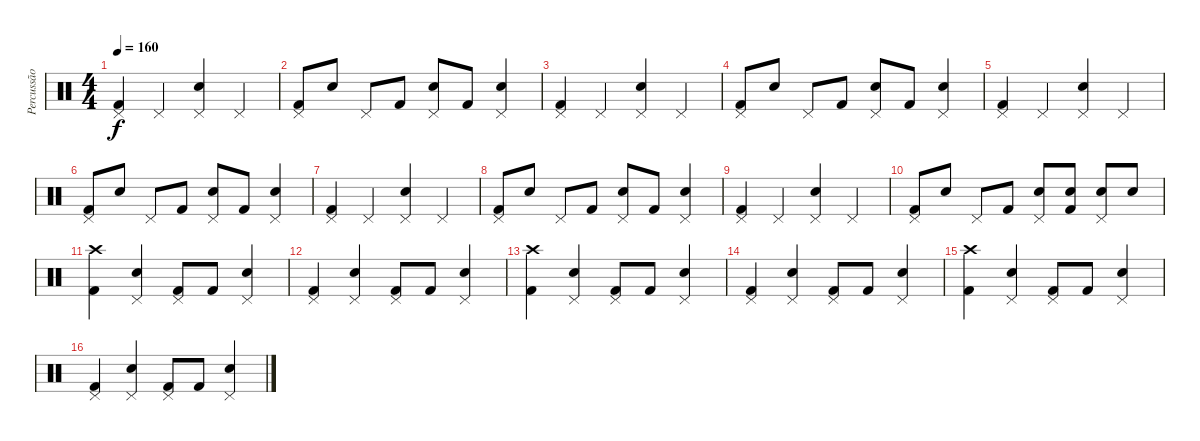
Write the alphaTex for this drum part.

\track ("Percussão" "Percussão") {instrument percussion}
\staff {score}
\articulation defaults
\ts (4 4)
\tempo 160
\clef neutral
\ks c
("Pedal Hi-Hat (hit)" "Kick (hit) 2").4{dy f} "Pedal Hi-Hat (hit)".4 ("Pedal Hi-Hat (hit)" "Snare (hit) 2").4 "Pedal Hi-Hat (hit)".4 |
("Pedal Hi-Hat (hit)" "Kick (hit) 2").8 "Snare (hit) 2".8 "Pedal Hi-Hat (hit)".8 "Kick (hit) 2".8 ("Pedal Hi-Hat (hit)" "Snare (hit) 2").8 "Kick (hit) 2".8 ("Pedal Hi-Hat (hit)" "Snare (hit) 2").4 |
("Pedal Hi-Hat (hit)" "Kick (hit) 2").4 "Pedal Hi-Hat (hit)".4 ("Pedal Hi-Hat (hit)" "Snare (hit) 2").4 "Pedal Hi-Hat (hit)".4 |
("Pedal Hi-Hat (hit)" "Kick (hit) 2").8 "Snare (hit) 2".8 "Pedal Hi-Hat (hit)".8 "Kick (hit) 2".8 ("Pedal Hi-Hat (hit)" "Snare (hit) 2").8 "Kick (hit) 2".8 ("Pedal Hi-Hat (hit)" "Snare (hit) 2").4 |
("Pedal Hi-Hat (hit)" "Kick (hit) 2").4 "Pedal Hi-Hat (hit)".4 ("Pedal Hi-Hat (hit)" "Snare (hit) 2").4 "Pedal Hi-Hat (hit)".4 |
("Pedal Hi-Hat (hit)" "Kick (hit) 2").8 "Snare (hit) 2".8 "Pedal Hi-Hat (hit)".8 "Kick (hit) 2".8 ("Pedal Hi-Hat (hit)" "Snare (hit) 2").8 "Kick (hit) 2".8 ("Pedal Hi-Hat (hit)" "Snare (hit) 2").4 |
("Pedal Hi-Hat (hit)" "Kick (hit) 2").4 "Pedal Hi-Hat (hit)".4 ("Pedal Hi-Hat (hit)" "Snare (hit) 2").4 "Pedal Hi-Hat (hit)".4 |
("Pedal Hi-Hat (hit)" "Kick (hit) 2").8 "Snare (hit) 2".8 "Pedal Hi-Hat (hit)".8 "Kick (hit) 2".8 ("Pedal Hi-Hat (hit)" "Snare (hit) 2").8 "Kick (hit) 2".8 ("Pedal Hi-Hat (hit)" "Snare (hit) 2").4 |
("Pedal Hi-Hat (hit)" "Kick (hit) 2").4 "Pedal Hi-Hat (hit)".4 ("Pedal Hi-Hat (hit)" "Snare (hit) 2").4 "Pedal Hi-Hat (hit)".4 |
("Pedal Hi-Hat (hit)" "Kick (hit) 2").8 "Snare (hit) 2".8 "Pedal Hi-Hat (hit)".8 "Kick (hit) 2".8 ("Pedal Hi-Hat (hit)" "Snare (hit) 2").8 ("Snare (hit) 2" "Kick (hit) 2").8 ("Pedal Hi-Hat (hit)" "Snare (hit) 2").8 "Snare (hit) 2".8 |
("Crash high (hit)" "Kick (hit) 2").4 ("Pedal Hi-Hat (hit)" "Snare (hit) 2").4 ("Pedal Hi-Hat (hit)" "Kick (hit) 2").8 "Kick (hit) 2".8 ("Pedal Hi-Hat (hit)" "Snare (hit) 2").4 |
("Pedal Hi-Hat (hit)" "Kick (hit) 2").4 ("Pedal Hi-Hat (hit)" "Snare (hit) 2").4 ("Pedal Hi-Hat (hit)" "Kick (hit) 2").8 "Kick (hit) 2".8 ("Pedal Hi-Hat (hit)" "Snare (hit) 2").4 |
("Crash high (hit)" "Kick (hit) 2").4 ("Pedal Hi-Hat (hit)" "Snare (hit) 2").4 ("Pedal Hi-Hat (hit)" "Kick (hit) 2").8 "Kick (hit) 2".8 ("Pedal Hi-Hat (hit)" "Snare (hit) 2").4 |
("Pedal Hi-Hat (hit)" "Kick (hit) 2").4 ("Pedal Hi-Hat (hit)" "Snare (hit) 2").4 ("Pedal Hi-Hat (hit)" "Kick (hit) 2").8 "Kick (hit) 2".8 ("Pedal Hi-Hat (hit)" "Snare (hit) 2").4 |
("Crash high (hit)" "Kick (hit) 2").4 ("Pedal Hi-Hat (hit)" "Snare (hit) 2").4 ("Pedal Hi-Hat (hit)" "Kick (hit) 2").8 "Kick (hit) 2".8 ("Pedal Hi-Hat (hit)" "Snare (hit) 2").4 |
("Pedal Hi-Hat (hit)" "Kick (hit) 2").4 ("Pedal Hi-Hat (hit)" "Snare (hit) 2").4 ("Pedal Hi-Hat (hit)" "Kick (hit) 2").8 "Kick (hit) 2".8 ("Pedal Hi-Hat (hit)" "Snare (hit) 2").4
